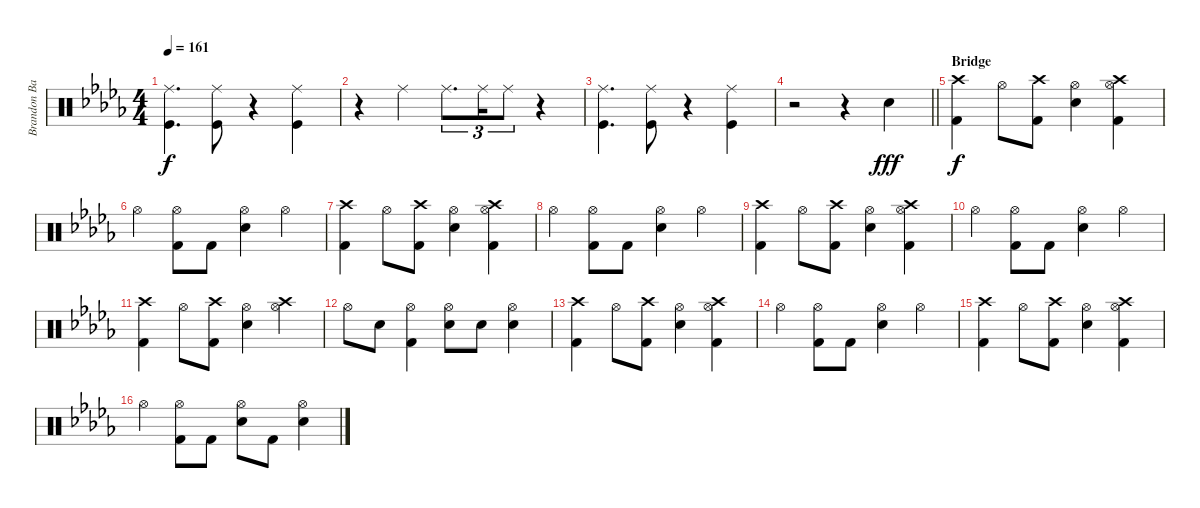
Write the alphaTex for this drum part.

\track ("Brandon Barnes - Drums" "Brandon Ba") {instrument percussion}
\staff {score}
\articulation defaults
\ts (4 4)
\tempo 161
\clef neutral
\ks db
("Ride (middle)" "Kick (hit)").4{d dy f} ("Ride (middle)" "Kick (hit)").8 r.4 ("Ride (middle)" "Kick (hit)").4 |
r.4 "Ride (middle)".4 "Ride (middle)".8{d tu (3 2)} "Ride (middle)".16{tu (3 2)} "Ride (middle)".8{tu (3 2)} r.4 |
("Ride (middle)" "Kick (hit)").4{d} ("Ride (middle)" "Kick (hit)").8 r.4 ("Ride (middle)" "Kick (hit)").4 |
\barLineRight lightlight
r.2 r.4 "Snare (hit) 2".4{dy fff} |
\section ("" "Bridge")
("Crash high (hit)" "Kick (hit) 2").4{dy f} "Hi-Hat (open)".8 ("Kick (hit) 2" "Crash high (hit)").8 ("Snare (hit) 2" "Hi-Hat (open)").4 ("Kick (hit) 2" "Crash high (hit)" "Hi-Hat (open)").4 |
"Hi-Hat (open)".4 ("Kick (hit) 2" "Hi-Hat (open)").8 "Kick (hit) 2".8 ("Snare (hit) 2" "Hi-Hat (open)").4 "Hi-Hat (open)".4 |
("Crash high (hit)" "Kick (hit) 2").4 "Hi-Hat (open)".8 ("Kick (hit) 2" "Crash high (hit)").8 ("Snare (hit) 2" "Hi-Hat (open)").4 ("Kick (hit) 2" "Crash high (hit)" "Hi-Hat (open)").4 |
"Hi-Hat (open)".4 ("Kick (hit) 2" "Hi-Hat (open)").8 "Kick (hit) 2".8 ("Snare (hit) 2" "Hi-Hat (open)").4 "Hi-Hat (open)".4 |
("Crash high (hit)" "Kick (hit) 2").4 "Hi-Hat (open)".8 ("Kick (hit) 2" "Crash high (hit)").8 ("Snare (hit) 2" "Hi-Hat (open)").4 ("Kick (hit) 2" "Crash high (hit)" "Hi-Hat (open)").4 |
"Hi-Hat (open)".4 ("Kick (hit) 2" "Hi-Hat (open)").8 "Kick (hit) 2".8 ("Snare (hit) 2" "Hi-Hat (open)").4 "Hi-Hat (open)".4 |
("Crash high (hit)" "Kick (hit) 2").4 "Hi-Hat (open)".8 ("Kick (hit) 2" "Crash high (hit)").8 ("Snare (hit) 2" "Hi-Hat (open)").4 ("Crash high (hit)" "Hi-Hat (open)").4 |
"Hi-Hat (open)".8 "Snare (hit) 2".8 ("Kick (hit) 2" "Hi-Hat (open)").4 ("Snare (hit) 2" "Hi-Hat (open)").8 "Snare (hit) 2".8 ("Snare (hit) 2" "Hi-Hat (open)").4 |
("Crash high (hit)" "Kick (hit) 2").4 "Hi-Hat (open)".8 ("Kick (hit) 2" "Crash high (hit)").8 ("Snare (hit) 2" "Hi-Hat (open)").4 ("Kick (hit) 2" "Crash high (hit)" "Hi-Hat (open)").4 |
"Hi-Hat (open)".4 ("Kick (hit) 2" "Hi-Hat (open)").8 "Kick (hit) 2".8 ("Snare (hit) 2" "Hi-Hat (open)").4 "Hi-Hat (open)".4 |
("Crash high (hit)" "Kick (hit) 2").4 "Hi-Hat (open)".8 ("Kick (hit) 2" "Crash high (hit)").8 ("Snare (hit) 2" "Hi-Hat (open)").4 ("Kick (hit) 2" "Crash high (hit)" "Hi-Hat (open)").4 |
"Hi-Hat (open)".4 ("Kick (hit) 2" "Hi-Hat (open)").8 "Kick (hit) 2".8 ("Snare (hit) 2" "Hi-Hat (open)").8 "Kick (hit) 2".8 ("Hi-Hat (open)" "Snare (hit) 2").4
